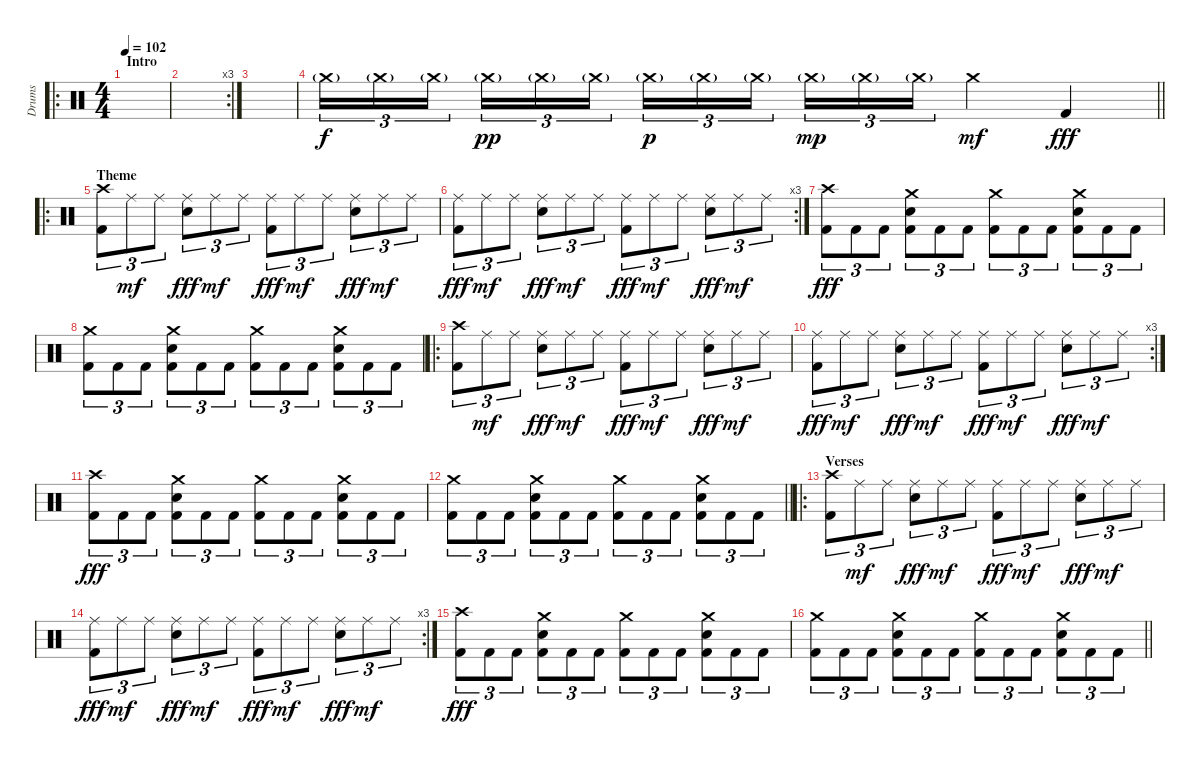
\track ("Drums" "Drums") {instrument percussion}
\staff {score}
\articulation defaults
\ro
\ts (4 4)
\section ("" "Intro")
\tempo 102
\clef neutral
\ks c
|
\rc 3
|
|
\barLineRight lightlight "Crash medium (hit)"{g}.16{tu (3 2)} "Crash medium (hit)"{g}.16{tu (3 2)} "Crash medium (hit)"{g}.16{tu (3 2) beam splitsecondary} "Crash medium (hit)"{g}.16{tu (3 2) dy pp} "Crash medium (hit)"{g}.16{tu (3 2)} "Crash medium (hit)"{g}.16{tu (3 2)} "Crash medium (hit)"{g}.16{tu (3 2) dy p} "Crash medium (hit)"{g}.16{tu (3 2)} "Crash medium (hit)"{g}.16{tu (3 2) beam splitsecondary} "Crash medium (hit)"{g}.16{tu (3 2) dy mp} "Crash medium (hit)"{g}.16{tu (3 2)} "Crash medium (hit)"{g}.16{tu (3 2)} "Crash medium (hit)".4{dy mf} "Kick (hit) 2".4{dy fff}
|
\ro
\section ("" "Theme")
("Crash high (hit)" "Kick (hit) 2").8{tu (3 2)} "Ride (middle)".8{tu (3 2) dy mf} "Ride (middle)".8{tu (3 2)} ("Ride (middle)" "Electric Snare (hit)").8{tu (3 2) dy fff} "Ride (middle)".8{tu (3 2) dy mf} "Ride (middle)".8{tu (3 2)} ("Ride (middle)" "Kick (hit) 2").8{tu (3 2) dy fff} "Ride (middle)".8{tu (3 2) dy mf} "Ride (middle)".8{tu (3 2)} ("Ride (middle)" "Electric Snare (hit)").8{tu (3 2) dy fff} "Ride (middle)".8{tu (3 2) dy mf} "Ride (middle)".8{tu (3 2)} |
\rc 3
("Ride (middle)" "Kick (hit) 2").8{tu (3 2) dy fff} "Ride (middle)".8{tu (3 2) dy mf} "Ride (middle)".8{tu (3 2)} ("Ride (middle)" "Electric Snare (hit)").8{tu (3 2) dy fff} "Ride (middle)".8{tu (3 2) dy mf} "Ride (middle)".8{tu (3 2)} ("Ride (middle)" "Kick (hit) 2").8{tu (3 2) dy fff} "Ride (middle)".8{tu (3 2) dy mf} "Ride (middle)".8{tu (3 2)} ("Ride (middle)" "Electric Snare (hit)").8{tu (3 2) dy fff} "Ride (middle)".8{tu (3 2) dy mf} "Ride (middle)".8{tu (3 2)} |
("Crash high (hit)" "Kick (hit) 2").8{tu (3 2) dy fff} "Kick (hit) 2".8{tu (3 2)} "Kick (hit) 2".8{tu (3 2)} ("Crash medium (hit)" "Electric Snare (hit)" "Kick (hit) 2").8{tu (3 2)} "Kick (hit) 2".8{tu (3 2)} "Kick (hit) 2".8{tu (3 2)} ("Crash medium (hit)" "Kick (hit) 2").8{tu (3 2)} "Kick (hit) 2".8{tu (3 2)} "Kick (hit) 2".8{tu (3 2)} ("Crash medium (hit)" "Electric Snare (hit)" "Kick (hit) 2").8{tu (3 2)} "Kick (hit) 2".8{tu (3 2)} "Kick (hit) 2".8{tu (3 2)} |
("Crash medium (hit)" "Kick (hit) 2").8{tu (3 2)} "Kick (hit) 2".8{tu (3 2)} "Kick (hit) 2".8{tu (3 2)} ("Crash medium (hit)" "Electric Snare (hit)" "Kick (hit) 2").8{tu (3 2)} "Kick (hit) 2".8{tu (3 2)} "Kick (hit) 2".8{tu (3 2)} ("Crash medium (hit)" "Kick (hit) 2").8{tu (3 2)} "Kick (hit) 2".8{tu (3 2)} "Kick (hit) 2".8{tu (3 2)} ("Crash medium (hit)" "Electric Snare (hit)" "Kick (hit) 2").8{tu (3 2)} "Kick (hit) 2".8{tu (3 2)} "Kick (hit) 2".8{tu (3 2)} |
\ro
("Crash high (hit)" "Kick (hit) 2").8{tu (3 2)} "Ride (middle)".8{tu (3 2) dy mf} "Ride (middle)".8{tu (3 2)} ("Ride (middle)" "Electric Snare (hit)").8{tu (3 2) dy fff} "Ride (middle)".8{tu (3 2) dy mf} "Ride (middle)".8{tu (3 2)} ("Ride (middle)" "Kick (hit) 2").8{tu (3 2) dy fff} "Ride (middle)".8{tu (3 2) dy mf} "Ride (middle)".8{tu (3 2)} ("Ride (middle)" "Electric Snare (hit)").8{tu (3 2) dy fff} "Ride (middle)".8{tu (3 2) dy mf} "Ride (middle)".8{tu (3 2)} |
\rc 3
("Ride (middle)" "Kick (hit) 2").8{tu (3 2) dy fff} "Ride (middle)".8{tu (3 2) dy mf} "Ride (middle)".8{tu (3 2)} ("Ride (middle)" "Electric Snare (hit)").8{tu (3 2) dy fff} "Ride (middle)".8{tu (3 2) dy mf} "Ride (middle)".8{tu (3 2)} ("Ride (middle)" "Kick (hit) 2").8{tu (3 2) dy fff} "Ride (middle)".8{tu (3 2) dy mf} "Ride (middle)".8{tu (3 2)} ("Ride (middle)" "Electric Snare (hit)").8{tu (3 2) dy fff} "Ride (middle)".8{tu (3 2) dy mf} "Ride (middle)".8{tu (3 2)} |
("Crash high (hit)" "Kick (hit) 2").8{tu (3 2) dy fff} "Kick (hit) 2".8{tu (3 2)} "Kick (hit) 2".8{tu (3 2)} ("Crash medium (hit)" "Electric Snare (hit)" "Kick (hit) 2").8{tu (3 2)} "Kick (hit) 2".8{tu (3 2)} "Kick (hit) 2".8{tu (3 2)} ("Crash medium (hit)" "Kick (hit) 2").8{tu (3 2)} "Kick (hit) 2".8{tu (3 2)} "Kick (hit) 2".8{tu (3 2)} ("Crash medium (hit)" "Electric Snare (hit)" "Kick (hit) 2").8{tu (3 2)} "Kick (hit) 2".8{tu (3 2)} "Kick (hit) 2".8{tu (3 2)} |
\barLineRight lightlight
("Crash medium (hit)" "Kick (hit) 2").8{tu (3 2)} "Kick (hit) 2".8{tu (3 2)} "Kick (hit) 2".8{tu (3 2)} ("Crash medium (hit)" "Electric Snare (hit)" "Kick (hit) 2").8{tu (3 2)} "Kick (hit) 2".8{tu (3 2)} "Kick (hit) 2".8{tu (3 2)} ("Crash medium (hit)" "Kick (hit) 2").8{tu (3 2)} "Kick (hit) 2".8{tu (3 2)} "Kick (hit) 2".8{tu (3 2)} ("Crash medium (hit)" "Electric Snare (hit)" "Kick (hit) 2").8{tu (3 2)} "Kick (hit) 2".8{tu (3 2)} "Kick (hit) 2".8{tu (3 2)} |
\ro
\section ("" "Verses")
("Crash high (hit)" "Kick (hit) 2").8{tu (3 2)} "Ride (middle)".8{tu (3 2) dy mf} "Ride (middle)".8{tu (3 2)} ("Ride (middle)" "Electric Snare (hit)").8{tu (3 2) dy fff} "Ride (middle)".8{tu (3 2) dy mf} "Ride (middle)".8{tu (3 2)} ("Ride (middle)" "Kick (hit) 2").8{tu (3 2) dy fff} "Ride (middle)".8{tu (3 2) dy mf} "Ride (middle)".8{tu (3 2)} ("Ride (middle)" "Electric Snare (hit)").8{tu (3 2) dy fff} "Ride (middle)".8{tu (3 2) dy mf} "Ride (middle)".8{tu (3 2)} |
\rc 3
("Ride (middle)" "Kick (hit) 2").8{tu (3 2) dy fff} "Ride (middle)".8{tu (3 2) dy mf} "Ride (middle)".8{tu (3 2)} ("Ride (middle)" "Electric Snare (hit)").8{tu (3 2) dy fff} "Ride (middle)".8{tu (3 2) dy mf} "Ride (middle)".8{tu (3 2)} ("Ride (middle)" "Kick (hit) 2").8{tu (3 2) dy fff} "Ride (middle)".8{tu (3 2) dy mf} "Ride (middle)".8{tu (3 2)} ("Ride (middle)" "Electric Snare (hit)").8{tu (3 2) dy fff} "Ride (middle)".8{tu (3 2) dy mf} "Ride (middle)".8{tu (3 2)} |
("Crash high (hit)" "Kick (hit) 2").8{tu (3 2) dy fff} "Kick (hit) 2".8{tu (3 2)} "Kick (hit) 2".8{tu (3 2)} ("Crash medium (hit)" "Electric Snare (hit)" "Kick (hit) 2").8{tu (3 2)} "Kick (hit) 2".8{tu (3 2)} "Kick (hit) 2".8{tu (3 2)} ("Crash medium (hit)" "Kick (hit) 2").8{tu (3 2)} "Kick (hit) 2".8{tu (3 2)} "Kick (hit) 2".8{tu (3 2)} ("Crash medium (hit)" "Electric Snare (hit)" "Kick (hit) 2").8{tu (3 2)} "Kick (hit) 2".8{tu (3 2)} "Kick (hit) 2".8{tu (3 2)} |
\barLineRight lightlight
("Crash medium (hit)" "Kick (hit) 2").8{tu (3 2)} "Kick (hit) 2".8{tu (3 2)} "Kick (hit) 2".8{tu (3 2)} ("Crash medium (hit)" "Electric Snare (hit)" "Kick (hit) 2").8{tu (3 2)} "Kick (hit) 2".8{tu (3 2)} "Kick (hit) 2".8{tu (3 2)} ("Crash medium (hit)" "Kick (hit) 2").8{tu (3 2)} "Kick (hit) 2".8{tu (3 2)} "Kick (hit) 2".8{tu (3 2)} ("Crash medium (hit)" "Electric Snare (hit)" "Kick (hit) 2").8{tu (3 2)} "Kick (hit) 2".8{tu (3 2)} "Kick (hit) 2".8{tu (3 2)}
